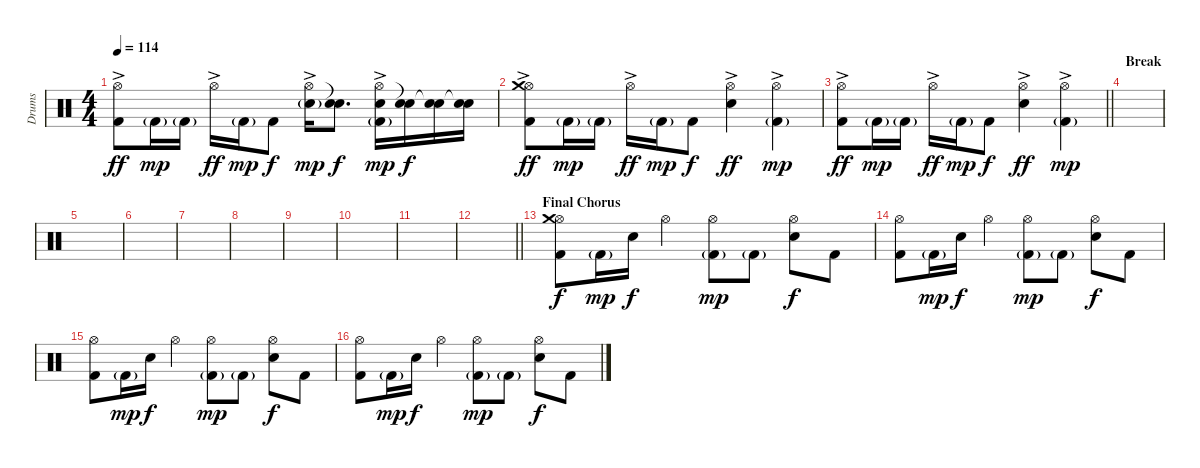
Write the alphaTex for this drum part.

\track ("Drums" "Drums") {instrument percussion}
\staff {score}
\articulation defaults
\ts (4 4)
\tempo 114
\clef neutral
\ks c
("Hi-Hat (open)"{ac} "Kick (hit) 2").8{dy ff} "Kick (hit) 2"{g}.16{dy mp} "Kick (hit) 2"{g}.16 "Hi-Hat (open)"{ac}.16{dy ff} "Kick (hit) 2"{g}.16{dy mp} "Kick (hit) 2".8{dy f} ("Hi-Hat (open)"{ac} "Electric Snare (hit)"{g}).16{dy mp} ("Snare (hit)"{t} "Electric Snare (hit)").8{d dy f} ("Hi-Hat (open)"{ac} "Electric Snare (hit)" "Kick (hit) 2"{g}).16{dy mp} ("Snare (hit)"{t} "Electric Snare (hit)").16{dy f} ("Snare (hit)"{t} "Electric Snare (hit)").16 ("Snare (hit)"{t} "Electric Snare (hit)").16 |
("Hi-Hat (open)"{ac} "Crash medium (hit)" "Kick (hit) 2").8{dy ff} "Kick (hit) 2"{g}.16{dy mp} "Kick (hit) 2"{g}.16 "Hi-Hat (open)"{ac}.16{dy ff} "Kick (hit) 2"{g}.16{dy mp} "Kick (hit) 2".8{dy f} ("Hi-Hat (open)"{ac} "Electric Snare (hit)").4{dy ff} ("Hi-Hat (open)"{ac} "Kick (hit) 2"{g}).4{dy mp} |
\barLineRight lightlight
("Hi-Hat (open)"{ac} "Kick (hit) 2").8{dy ff} "Kick (hit) 2"{g}.16{dy mp} "Kick (hit) 2"{g}.16 "Hi-Hat (open)"{ac}.16{dy ff} "Kick (hit) 2"{g}.16{dy mp} "Kick (hit) 2".8{dy f} ("Hi-Hat (open)"{ac} "Electric Snare (hit)").4{dy ff} ("Hi-Hat (open)"{ac} "Kick (hit) 2"{g}).4{dy mp} |
\section ("" "Break")
|
|
|
|
|
|
|
|
\barLineRight lightlight
|
\section ("" "Final Chorus")
("Hi-Hat (open)" "Crash medium (hit)" "Kick (hit) 2").8{dy f} "Kick (hit) 2"{g}.16{dy mp} "Electric Snare (hit)".16{dy f} "Hi-Hat (open)".4 ("Hi-Hat (open)" "Kick (hit) 2"{g}).8{dy mp} "Kick (hit) 2"{g}.8 ("Hi-Hat (open)" "Electric Snare (hit)").8{dy f} "Kick (hit) 2".8 |
("Hi-Hat (open)" "Kick (hit) 2").8 "Kick (hit) 2"{g}.16{dy mp} "Electric Snare (hit)".16{dy f} "Hi-Hat (open)".4 ("Hi-Hat (open)" "Kick (hit) 2"{g}).8{dy mp} "Kick (hit) 2"{g}.8 ("Hi-Hat (open)" "Electric Snare (hit)").8{dy f} "Kick (hit) 2".8 |
("Hi-Hat (open)" "Kick (hit) 2").8 "Kick (hit) 2"{g}.16{dy mp} "Electric Snare (hit)".16{dy f} "Hi-Hat (open)".4 ("Hi-Hat (open)" "Kick (hit) 2"{g}).8{dy mp} "Kick (hit) 2"{g}.8 ("Hi-Hat (open)" "Electric Snare (hit)").8{dy f} "Kick (hit) 2".8 |
("Hi-Hat (open)" "Kick (hit) 2").8 "Kick (hit) 2"{g}.16{dy mp} "Electric Snare (hit)".16{dy f} "Hi-Hat (open)".4 ("Hi-Hat (open)" "Kick (hit) 2"{g}).8{dy mp} "Kick (hit) 2"{g}.8 ("Hi-Hat (open)" "Electric Snare (hit)").8{dy f} "Kick (hit) 2".8
